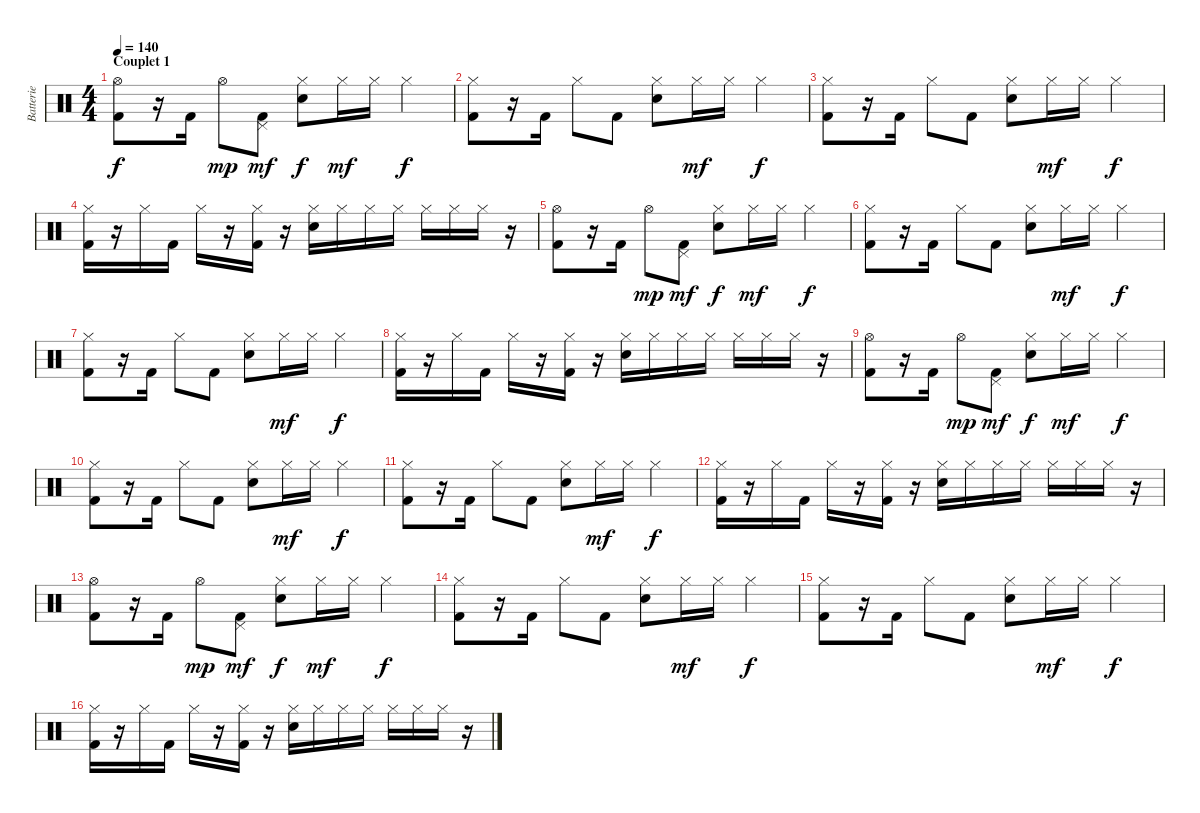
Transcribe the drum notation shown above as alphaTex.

\track ("Batterie" "Batterie") {instrument percussion}
\staff {score}
\articulation defaults
\ts (4 4)
\section ("" "Couplet 1")
\tempo 140
\clef neutral
\ks c
("Kick (hit) 2" "Hi-Hat (open)").8{dy f} r.16 "Kick (hit) 2".16 "Hi-Hat (open)".8{dy mp} ("Kick (hit) 2" "Pedal Hi-Hat (hit)").8{dy mf} ("Electric Snare (hit)" "Hi-Hat (closed)").8{dy f} "Hi-Hat (closed)".16{dy mf} "Hi-Hat (closed)".16 "Hi-Hat (closed)".4{dy f} |
("Kick (hit) 2" "Hi-Hat (closed)").8 r.16 "Kick (hit) 2".16 "Hi-Hat (closed)".8 "Kick (hit) 2".8 ("Electric Snare (hit)" "Hi-Hat (closed)").8 "Hi-Hat (closed)".16{dy mf} "Hi-Hat (closed)".16 "Hi-Hat (closed)".4{dy f} |
("Kick (hit) 2" "Hi-Hat (closed)").8 r.16 "Kick (hit) 2".16 "Hi-Hat (closed)".8 "Kick (hit) 2".8 ("Electric Snare (hit)" "Hi-Hat (closed)").8 "Hi-Hat (closed)".16{dy mf} "Hi-Hat (closed)".16 "Hi-Hat (closed)".4{dy f} |
("Kick (hit) 2" "Hi-Hat (closed)").16 r.16 "Hi-Hat (closed)".16 "Kick (hit) 2".16 "Hi-Hat (closed)".16 r.16 ("Kick (hit) 2" "Hi-Hat (closed)").16 r.16 ("Electric Snare (hit)" "Hi-Hat (closed)").16 "Hi-Hat (closed)".16 "Hi-Hat (closed)".16 "Hi-Hat (closed)".16 "Hi-Hat (closed)".16 "Hi-Hat (closed)".16 "Hi-Hat (closed)".16 r.16 |
("Kick (hit) 2" "Hi-Hat (open)").8 r.16 "Kick (hit) 2".16 "Hi-Hat (open)".8{dy mp} ("Kick (hit) 2" "Pedal Hi-Hat (hit)").8{dy mf} ("Electric Snare (hit)" "Hi-Hat (closed)").8{dy f} "Hi-Hat (closed)".16{dy mf} "Hi-Hat (closed)".16 "Hi-Hat (closed)".4{dy f} |
("Kick (hit) 2" "Hi-Hat (closed)").8 r.16 "Kick (hit) 2".16 "Hi-Hat (closed)".8 "Kick (hit) 2".8 ("Electric Snare (hit)" "Hi-Hat (closed)").8 "Hi-Hat (closed)".16{dy mf} "Hi-Hat (closed)".16 "Hi-Hat (closed)".4{dy f} |
("Kick (hit) 2" "Hi-Hat (closed)").8 r.16 "Kick (hit) 2".16 "Hi-Hat (closed)".8 "Kick (hit) 2".8 ("Electric Snare (hit)" "Hi-Hat (closed)").8 "Hi-Hat (closed)".16{dy mf} "Hi-Hat (closed)".16 "Hi-Hat (closed)".4{dy f} |
("Kick (hit) 2" "Hi-Hat (closed)").16 r.16 "Hi-Hat (closed)".16 "Kick (hit) 2".16 "Hi-Hat (closed)".16 r.16 ("Kick (hit) 2" "Hi-Hat (closed)").16 r.16 ("Electric Snare (hit)" "Hi-Hat (closed)").16 "Hi-Hat (closed)".16 "Hi-Hat (closed)".16 "Hi-Hat (closed)".16 "Hi-Hat (closed)".16 "Hi-Hat (closed)".16 "Hi-Hat (closed)".16 r.16 |
("Kick (hit) 2" "Hi-Hat (open)").8 r.16 "Kick (hit) 2".16 "Hi-Hat (open)".8{dy mp} ("Kick (hit) 2" "Pedal Hi-Hat (hit)").8{dy mf} ("Electric Snare (hit)" "Hi-Hat (closed)").8{dy f} "Hi-Hat (closed)".16{dy mf} "Hi-Hat (closed)".16 "Hi-Hat (closed)".4{dy f} |
("Kick (hit) 2" "Hi-Hat (closed)").8 r.16 "Kick (hit) 2".16 "Hi-Hat (closed)".8 "Kick (hit) 2".8 ("Electric Snare (hit)" "Hi-Hat (closed)").8 "Hi-Hat (closed)".16{dy mf} "Hi-Hat (closed)".16 "Hi-Hat (closed)".4{dy f} |
("Kick (hit) 2" "Hi-Hat (closed)").8 r.16 "Kick (hit) 2".16 "Hi-Hat (closed)".8 "Kick (hit) 2".8 ("Electric Snare (hit)" "Hi-Hat (closed)").8 "Hi-Hat (closed)".16{dy mf} "Hi-Hat (closed)".16 "Hi-Hat (closed)".4{dy f} |
("Kick (hit) 2" "Hi-Hat (closed)").16 r.16 "Hi-Hat (closed)".16 "Kick (hit) 2".16 "Hi-Hat (closed)".16 r.16 ("Kick (hit) 2" "Hi-Hat (closed)").16 r.16 ("Electric Snare (hit)" "Hi-Hat (closed)").16 "Hi-Hat (closed)".16 "Hi-Hat (closed)".16 "Hi-Hat (closed)".16 "Hi-Hat (closed)".16 "Hi-Hat (closed)".16 "Hi-Hat (closed)".16 r.16 |
("Kick (hit) 2" "Hi-Hat (open)").8 r.16 "Kick (hit) 2".16 "Hi-Hat (open)".8{dy mp} ("Kick (hit) 2" "Pedal Hi-Hat (hit)").8{dy mf} ("Electric Snare (hit)" "Hi-Hat (closed)").8{dy f} "Hi-Hat (closed)".16{dy mf} "Hi-Hat (closed)".16 "Hi-Hat (closed)".4{dy f} |
("Kick (hit) 2" "Hi-Hat (closed)").8 r.16 "Kick (hit) 2".16 "Hi-Hat (closed)".8 "Kick (hit) 2".8 ("Electric Snare (hit)" "Hi-Hat (closed)").8 "Hi-Hat (closed)".16{dy mf} "Hi-Hat (closed)".16 "Hi-Hat (closed)".4{dy f} |
("Kick (hit) 2" "Hi-Hat (closed)").8 r.16 "Kick (hit) 2".16 "Hi-Hat (closed)".8 "Kick (hit) 2".8 ("Electric Snare (hit)" "Hi-Hat (closed)").8 "Hi-Hat (closed)".16{dy mf} "Hi-Hat (closed)".16 "Hi-Hat (closed)".4{dy f} |
("Kick (hit) 2" "Hi-Hat (closed)").16 r.16 "Hi-Hat (closed)".16 "Kick (hit) 2".16 "Hi-Hat (closed)".16 r.16 ("Kick (hit) 2" "Hi-Hat (closed)").16 r.16 ("Electric Snare (hit)" "Hi-Hat (closed)").16 "Hi-Hat (closed)".16 "Hi-Hat (closed)".16 "Hi-Hat (closed)".16 "Hi-Hat (closed)".16 "Hi-Hat (closed)".16 "Hi-Hat (closed)".16 r.16
